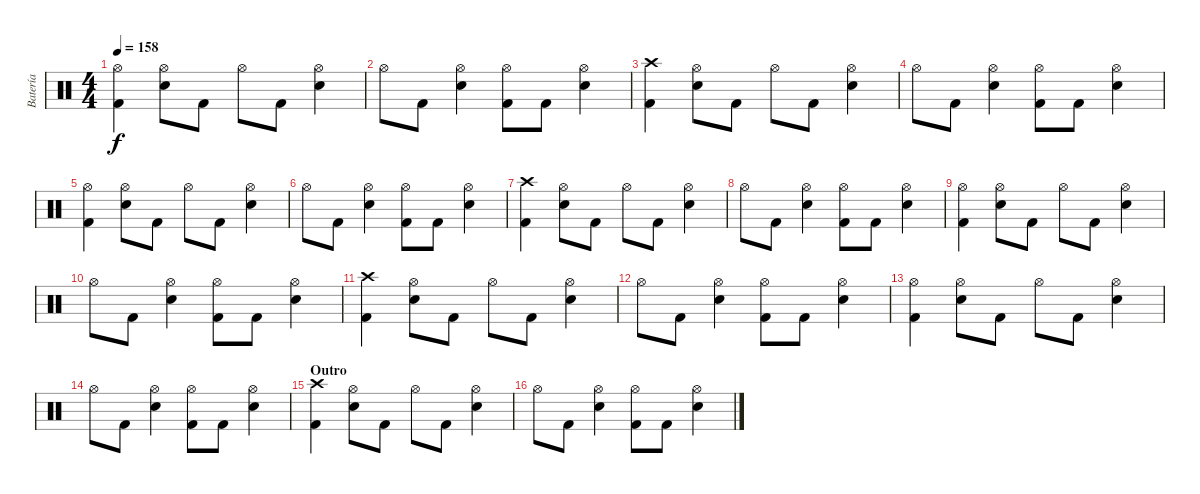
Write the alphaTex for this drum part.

\track ("Batería" "Batería") {instrument percussion}
\staff {score}
\articulation defaults
\ts (4 4)
\tempo 158
\clef neutral
\ks c
("Hi-Hat (open)" "Kick (hit) 2").4{dy f} ("Hi-Hat (open)" "Electric Snare (hit)").8 "Kick (hit) 2".8 "Hi-Hat (open)".8 "Kick (hit) 2".8 ("Hi-Hat (open)" "Electric Snare (hit)").4 |
"Hi-Hat (open)".8 "Kick (hit) 2".8 ("Hi-Hat (open)" "Electric Snare (hit)").4 ("Hi-Hat (open)" "Kick (hit) 2").8 "Kick (hit) 2".8 ("Hi-Hat (open)" "Electric Snare (hit)").4 |
("Crash high (hit)" "Kick (hit) 2").4 ("Hi-Hat (open)" "Electric Snare (hit)").8 "Kick (hit) 2".8 "Hi-Hat (open)".8 "Kick (hit) 2".8 ("Hi-Hat (open)" "Electric Snare (hit)").4 |
"Hi-Hat (open)".8 "Kick (hit) 2".8 ("Hi-Hat (open)" "Electric Snare (hit)").4 ("Hi-Hat (open)" "Kick (hit) 2").8 "Kick (hit) 2".8 ("Hi-Hat (open)" "Electric Snare (hit)").4 |
("Hi-Hat (open)" "Kick (hit) 2").4 ("Hi-Hat (open)" "Electric Snare (hit)").8 "Kick (hit) 2".8 "Hi-Hat (open)".8 "Kick (hit) 2".8 ("Hi-Hat (open)" "Electric Snare (hit)").4 |
"Hi-Hat (open)".8 "Kick (hit) 2".8 ("Hi-Hat (open)" "Electric Snare (hit)").4 ("Hi-Hat (open)" "Kick (hit) 2").8 "Kick (hit) 2".8 ("Hi-Hat (open)" "Electric Snare (hit)").4 |
("Crash high (hit)" "Kick (hit) 2").4 ("Hi-Hat (open)" "Electric Snare (hit)").8 "Kick (hit) 2".8 "Hi-Hat (open)".8 "Kick (hit) 2".8 ("Hi-Hat (open)" "Electric Snare (hit)").4 |
"Hi-Hat (open)".8 "Kick (hit) 2".8 ("Hi-Hat (open)" "Electric Snare (hit)").4 ("Hi-Hat (open)" "Kick (hit) 2").8 "Kick (hit) 2".8 ("Hi-Hat (open)" "Electric Snare (hit)").4 |
("Hi-Hat (open)" "Kick (hit) 2").4 ("Hi-Hat (open)" "Electric Snare (hit)").8 "Kick (hit) 2".8 "Hi-Hat (open)".8 "Kick (hit) 2".8 ("Hi-Hat (open)" "Electric Snare (hit)").4 |
"Hi-Hat (open)".8 "Kick (hit) 2".8 ("Hi-Hat (open)" "Electric Snare (hit)").4 ("Hi-Hat (open)" "Kick (hit) 2").8 "Kick (hit) 2".8 ("Hi-Hat (open)" "Electric Snare (hit)").4 |
("Crash high (hit)" "Kick (hit) 2").4 ("Hi-Hat (open)" "Electric Snare (hit)").8 "Kick (hit) 2".8 "Hi-Hat (open)".8 "Kick (hit) 2".8 ("Hi-Hat (open)" "Electric Snare (hit)").4 |
"Hi-Hat (open)".8 "Kick (hit) 2".8 ("Hi-Hat (open)" "Electric Snare (hit)").4 ("Hi-Hat (open)" "Kick (hit) 2").8 "Kick (hit) 2".8 ("Hi-Hat (open)" "Electric Snare (hit)").4 |
("Hi-Hat (open)" "Kick (hit) 2").4 ("Hi-Hat (open)" "Electric Snare (hit)").8 "Kick (hit) 2".8 "Hi-Hat (open)".8 "Kick (hit) 2".8 ("Hi-Hat (open)" "Electric Snare (hit)").4 |
"Hi-Hat (open)".8 "Kick (hit) 2".8 ("Hi-Hat (open)" "Electric Snare (hit)").4 ("Hi-Hat (open)" "Kick (hit) 2").8 "Kick (hit) 2".8 ("Hi-Hat (open)" "Electric Snare (hit)").4 |
\section ("" "Outro")
("Crash high (hit)" "Kick (hit) 2").4 ("Hi-Hat (open)" "Electric Snare (hit)").8 "Kick (hit) 2".8 "Hi-Hat (open)".8 "Kick (hit) 2".8 ("Hi-Hat (open)" "Electric Snare (hit)").4 |
"Hi-Hat (open)".8 "Kick (hit) 2".8 ("Hi-Hat (open)" "Electric Snare (hit)").4 ("Hi-Hat (open)" "Kick (hit) 2").8 "Kick (hit) 2".8 ("Hi-Hat (open)" "Electric Snare (hit)").4
